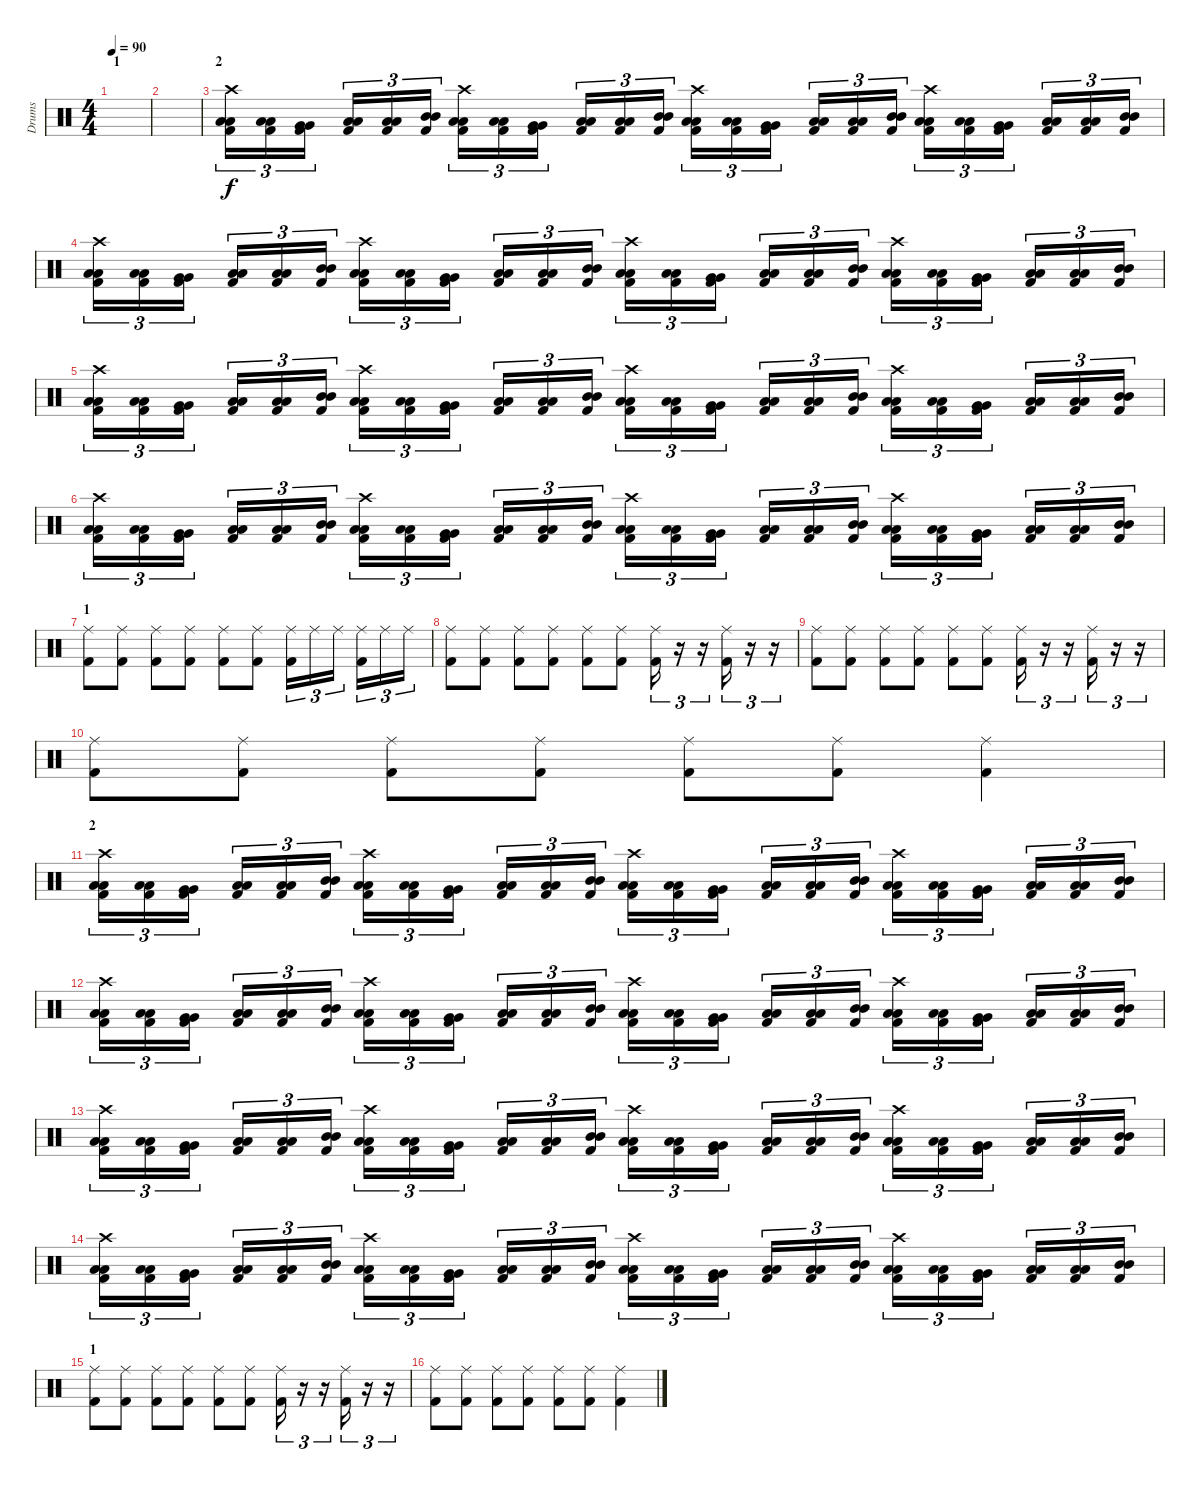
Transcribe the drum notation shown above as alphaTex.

\track ("Drums" "Drums") {instrument percussion}
\staff {score}
\articulation defaults
\ts (4 4)
\section ("" "1")
\tempo 90
\clef neutral
\ks c
|
|
\section ("" "2")
("Crash high (hit)" "Low Floor Tom (hit)" "Low Floor Tom (hit)" "Kick (hit) 2").16{tu (3 2)} ("Low Floor Tom (hit)" "Low Floor Tom (hit)" "Kick (hit) 2").16{tu (3 2)} ("Very Low Tom (hit)" "Very Low Tom (hit)" "Kick (hit) 2").16{tu (3 2)} ("Low Tom (hit)" "Low Tom (hit)" "Kick (hit) 2").16{tu (3 2)} ("Low Tom (hit)" "Low Tom (hit)" "Kick (hit) 2").16{tu (3 2)} ("Mid Tom (hit)" "Mid Tom (hit)" "Kick (hit) 2").16{tu (3 2)} ("Crash high (hit)" "Low Floor Tom (hit)" "Low Floor Tom (hit)" "Kick (hit) 2").16{tu (3 2)} ("Low Floor Tom (hit)" "Low Floor Tom (hit)" "Kick (hit) 2").16{tu (3 2)} ("Very Low Tom (hit)" "Very Low Tom (hit)" "Kick (hit) 2").16{tu (3 2)} ("Low Tom (hit)" "Low Tom (hit)" "Kick (hit) 2").16{tu (3 2)} ("Low Tom (hit)" "Low Tom (hit)" "Kick (hit) 2").16{tu (3 2)} ("Mid Tom (hit)" "Mid Tom (hit)" "Kick (hit) 2").16{tu (3 2)} ("Crash high (hit)" "Low Floor Tom (hit)" "Low Floor Tom (hit)" "Kick (hit) 2").16{tu (3 2)} ("Low Floor Tom (hit)" "Low Floor Tom (hit)" "Kick (hit) 2").16{tu (3 2)} ("Very Low Tom (hit)" "Very Low Tom (hit)" "Kick (hit) 2").16{tu (3 2)} ("Low Tom (hit)" "Low Tom (hit)" "Kick (hit) 2").16{tu (3 2)} ("Low Tom (hit)" "Low Tom (hit)" "Kick (hit) 2").16{tu (3 2)} ("Mid Tom (hit)" "Mid Tom (hit)" "Kick (hit) 2").16{tu (3 2)} ("Crash high (hit)" "Low Floor Tom (hit)" "Low Floor Tom (hit)" "Kick (hit) 2").16{tu (3 2)} ("Low Floor Tom (hit)" "Low Floor Tom (hit)" "Kick (hit) 2").16{tu (3 2)} ("Very Low Tom (hit)" "Very Low Tom (hit)" "Kick (hit) 2").16{tu (3 2)} ("Low Tom (hit)" "Low Tom (hit)" "Kick (hit) 2").16{tu (3 2)} ("Low Tom (hit)" "Low Tom (hit)" "Kick (hit) 2").16{tu (3 2)} ("Mid Tom (hit)" "Mid Tom (hit)" "Kick (hit) 2").16{tu (3 2)} |
("Crash high (hit)" "Low Floor Tom (hit)" "Low Floor Tom (hit)" "Kick (hit) 2").16{tu (3 2)} ("Low Floor Tom (hit)" "Low Floor Tom (hit)" "Kick (hit) 2").16{tu (3 2)} ("Very Low Tom (hit)" "Very Low Tom (hit)" "Kick (hit) 2").16{tu (3 2)} ("Low Tom (hit)" "Low Tom (hit)" "Kick (hit) 2").16{tu (3 2)} ("Low Tom (hit)" "Low Tom (hit)" "Kick (hit) 2").16{tu (3 2)} ("Mid Tom (hit)" "Mid Tom (hit)" "Kick (hit) 2").16{tu (3 2)} ("Crash high (hit)" "Low Floor Tom (hit)" "Low Floor Tom (hit)" "Kick (hit) 2").16{tu (3 2)} ("Low Floor Tom (hit)" "Low Floor Tom (hit)" "Kick (hit) 2").16{tu (3 2)} ("Very Low Tom (hit)" "Very Low Tom (hit)" "Kick (hit) 2").16{tu (3 2)} ("Low Tom (hit)" "Low Tom (hit)" "Kick (hit) 2").16{tu (3 2)} ("Low Tom (hit)" "Low Tom (hit)" "Kick (hit) 2").16{tu (3 2)} ("Mid Tom (hit)" "Mid Tom (hit)" "Kick (hit) 2").16{tu (3 2)} ("Crash high (hit)" "Low Floor Tom (hit)" "Low Floor Tom (hit)" "Kick (hit) 2").16{tu (3 2)} ("Low Floor Tom (hit)" "Low Floor Tom (hit)" "Kick (hit) 2").16{tu (3 2)} ("Very Low Tom (hit)" "Very Low Tom (hit)" "Kick (hit) 2").16{tu (3 2)} ("Low Tom (hit)" "Low Tom (hit)" "Kick (hit) 2").16{tu (3 2)} ("Low Tom (hit)" "Low Tom (hit)" "Kick (hit) 2").16{tu (3 2)} ("Mid Tom (hit)" "Mid Tom (hit)" "Kick (hit) 2").16{tu (3 2)} ("Crash high (hit)" "Low Floor Tom (hit)" "Low Floor Tom (hit)" "Kick (hit) 2").16{tu (3 2)} ("Low Floor Tom (hit)" "Low Floor Tom (hit)" "Kick (hit) 2").16{tu (3 2)} ("Very Low Tom (hit)" "Very Low Tom (hit)" "Kick (hit) 2").16{tu (3 2)} ("Low Tom (hit)" "Low Tom (hit)" "Kick (hit) 2").16{tu (3 2)} ("Low Tom (hit)" "Low Tom (hit)" "Kick (hit) 2").16{tu (3 2)} ("Mid Tom (hit)" "Mid Tom (hit)" "Kick (hit) 2").16{tu (3 2)} |
("Crash high (hit)" "Low Floor Tom (hit)" "Low Floor Tom (hit)" "Kick (hit) 2").16{tu (3 2)} ("Low Floor Tom (hit)" "Low Floor Tom (hit)" "Kick (hit) 2").16{tu (3 2)} ("Very Low Tom (hit)" "Very Low Tom (hit)" "Kick (hit) 2").16{tu (3 2)} ("Low Tom (hit)" "Low Tom (hit)" "Kick (hit) 2").16{tu (3 2)} ("Low Tom (hit)" "Low Tom (hit)" "Kick (hit) 2").16{tu (3 2)} ("Mid Tom (hit)" "Mid Tom (hit)" "Kick (hit) 2").16{tu (3 2)} ("Crash high (hit)" "Low Floor Tom (hit)" "Low Floor Tom (hit)" "Kick (hit) 2").16{tu (3 2)} ("Low Floor Tom (hit)" "Low Floor Tom (hit)" "Kick (hit) 2").16{tu (3 2)} ("Very Low Tom (hit)" "Very Low Tom (hit)" "Kick (hit) 2").16{tu (3 2)} ("Low Tom (hit)" "Low Tom (hit)" "Kick (hit) 2").16{tu (3 2)} ("Low Tom (hit)" "Low Tom (hit)" "Kick (hit) 2").16{tu (3 2)} ("Mid Tom (hit)" "Mid Tom (hit)" "Kick (hit) 2").16{tu (3 2)} ("Crash high (hit)" "Low Floor Tom (hit)" "Low Floor Tom (hit)" "Kick (hit) 2").16{tu (3 2)} ("Low Floor Tom (hit)" "Low Floor Tom (hit)" "Kick (hit) 2").16{tu (3 2)} ("Very Low Tom (hit)" "Very Low Tom (hit)" "Kick (hit) 2").16{tu (3 2)} ("Low Tom (hit)" "Low Tom (hit)" "Kick (hit) 2").16{tu (3 2)} ("Low Tom (hit)" "Low Tom (hit)" "Kick (hit) 2").16{tu (3 2)} ("Mid Tom (hit)" "Mid Tom (hit)" "Kick (hit) 2").16{tu (3 2)} ("Crash high (hit)" "Low Floor Tom (hit)" "Low Floor Tom (hit)" "Kick (hit) 2").16{tu (3 2)} ("Low Floor Tom (hit)" "Low Floor Tom (hit)" "Kick (hit) 2").16{tu (3 2)} ("Very Low Tom (hit)" "Very Low Tom (hit)" "Kick (hit) 2").16{tu (3 2)} ("Low Tom (hit)" "Low Tom (hit)" "Kick (hit) 2").16{tu (3 2)} ("Low Tom (hit)" "Low Tom (hit)" "Kick (hit) 2").16{tu (3 2)} ("Mid Tom (hit)" "Mid Tom (hit)" "Kick (hit) 2").16{tu (3 2)} |
("Crash high (hit)" "Low Floor Tom (hit)" "Low Floor Tom (hit)" "Kick (hit) 2").16{tu (3 2)} ("Low Floor Tom (hit)" "Low Floor Tom (hit)" "Kick (hit) 2").16{tu (3 2)} ("Very Low Tom (hit)" "Very Low Tom (hit)" "Kick (hit) 2").16{tu (3 2)} ("Low Tom (hit)" "Low Tom (hit)" "Kick (hit) 2").16{tu (3 2)} ("Low Tom (hit)" "Low Tom (hit)" "Kick (hit) 2").16{tu (3 2)} ("Mid Tom (hit)" "Mid Tom (hit)" "Kick (hit) 2").16{tu (3 2)} ("Crash high (hit)" "Low Floor Tom (hit)" "Low Floor Tom (hit)" "Kick (hit) 2").16{tu (3 2)} ("Low Floor Tom (hit)" "Low Floor Tom (hit)" "Kick (hit) 2").16{tu (3 2)} ("Very Low Tom (hit)" "Very Low Tom (hit)" "Kick (hit) 2").16{tu (3 2)} ("Low Tom (hit)" "Low Tom (hit)" "Kick (hit) 2").16{tu (3 2)} ("Low Tom (hit)" "Low Tom (hit)" "Kick (hit) 2").16{tu (3 2)} ("Mid Tom (hit)" "Mid Tom (hit)" "Kick (hit) 2").16{tu (3 2)} ("Crash high (hit)" "Low Floor Tom (hit)" "Low Floor Tom (hit)" "Kick (hit) 2").16{tu (3 2)} ("Low Floor Tom (hit)" "Low Floor Tom (hit)" "Kick (hit) 2").16{tu (3 2)} ("Very Low Tom (hit)" "Very Low Tom (hit)" "Kick (hit) 2").16{tu (3 2)} ("Low Tom (hit)" "Low Tom (hit)" "Kick (hit) 2").16{tu (3 2)} ("Low Tom (hit)" "Low Tom (hit)" "Kick (hit) 2").16{tu (3 2)} ("Mid Tom (hit)" "Mid Tom (hit)" "Kick (hit) 2").16{tu (3 2)} ("Crash high (hit)" "Low Floor Tom (hit)" "Low Floor Tom (hit)" "Kick (hit) 2").16{tu (3 2)} ("Low Floor Tom (hit)" "Low Floor Tom (hit)" "Kick (hit) 2").16{tu (3 2)} ("Very Low Tom (hit)" "Very Low Tom (hit)" "Kick (hit) 2").16{tu (3 2)} ("Low Tom (hit)" "Low Tom (hit)" "Kick (hit) 2").16{tu (3 2)} ("Low Tom (hit)" "Low Tom (hit)" "Kick (hit) 2").16{tu (3 2)} ("Mid Tom (hit)" "Mid Tom (hit)" "Kick (hit) 2").16{tu (3 2)} |
\section ("" "1")
("Ride (middle)" "Kick (hit) 2").8 ("Ride (middle)" "Kick (hit) 2").8 ("Ride (middle)" "Kick (hit) 2").8 ("Ride (middle)" "Kick (hit) 2").8 ("Ride (middle)" "Kick (hit) 2").8 ("Ride (middle)" "Kick (hit) 2").8 ("Ride (middle)" "Kick (hit) 2").16{tu (3 2)} "Ride (middle)".16{tu (3 2)} "Ride (middle)".16{tu (3 2)} ("Ride (middle)" "Kick (hit) 2").16{tu (3 2)} "Ride (middle)".16{tu (3 2)} "Ride (middle)".16{tu (3 2)} |
("Ride (middle)" "Kick (hit) 2").8 ("Ride (middle)" "Kick (hit) 2").8 ("Ride (middle)" "Kick (hit) 2").8 ("Ride (middle)" "Kick (hit) 2").8 ("Ride (middle)" "Kick (hit) 2").8 ("Ride (middle)" "Kick (hit) 2").8 ("Ride (middle)" "Kick (hit) 2").16{tu (3 2)} r.16{tu (3 2)} r.16{tu (3 2)} ("Ride (middle)" "Kick (hit) 2").16{tu (3 2)} r.16{tu (3 2)} r.16{tu (3 2)} |
("Ride (middle)" "Kick (hit) 2").8 ("Ride (middle)" "Kick (hit) 2").8 ("Ride (middle)" "Kick (hit) 2").8 ("Ride (middle)" "Kick (hit) 2").8 ("Ride (middle)" "Kick (hit) 2").8 ("Ride (middle)" "Kick (hit) 2").8 ("Ride (middle)" "Kick (hit) 2").16{tu (3 2)} r.16{tu (3 2)} r.16{tu (3 2)} ("Ride (middle)" "Kick (hit) 2").16{tu (3 2)} r.16{tu (3 2)} r.16{tu (3 2)} |
("Ride (middle)" "Kick (hit) 2").8 ("Ride (middle)" "Kick (hit) 2").8 ("Ride (middle)" "Kick (hit) 2").8 ("Ride (middle)" "Kick (hit) 2").8 ("Ride (middle)" "Kick (hit) 2").8 ("Ride (middle)" "Kick (hit) 2").8 ("Ride (middle)" "Kick (hit) 2").4 |
\section ("" "2")
("Crash high (hit)" "Low Floor Tom (hit)" "Low Floor Tom (hit)" "Kick (hit) 2").16{tu (3 2)} ("Low Floor Tom (hit)" "Low Floor Tom (hit)" "Kick (hit) 2").16{tu (3 2)} ("Very Low Tom (hit)" "Very Low Tom (hit)" "Kick (hit) 2").16{tu (3 2)} ("Low Tom (hit)" "Low Tom (hit)" "Kick (hit) 2").16{tu (3 2)} ("Low Tom (hit)" "Low Tom (hit)" "Kick (hit) 2").16{tu (3 2)} ("Mid Tom (hit)" "Mid Tom (hit)" "Kick (hit) 2").16{tu (3 2)} ("Crash high (hit)" "Low Floor Tom (hit)" "Low Floor Tom (hit)" "Kick (hit) 2").16{tu (3 2)} ("Low Floor Tom (hit)" "Low Floor Tom (hit)" "Kick (hit) 2").16{tu (3 2)} ("Very Low Tom (hit)" "Very Low Tom (hit)" "Kick (hit) 2").16{tu (3 2)} ("Low Tom (hit)" "Low Tom (hit)" "Kick (hit) 2").16{tu (3 2)} ("Low Tom (hit)" "Low Tom (hit)" "Kick (hit) 2").16{tu (3 2)} ("Mid Tom (hit)" "Mid Tom (hit)" "Kick (hit) 2").16{tu (3 2)} ("Crash high (hit)" "Low Floor Tom (hit)" "Low Floor Tom (hit)" "Kick (hit) 2").16{tu (3 2)} ("Low Floor Tom (hit)" "Low Floor Tom (hit)" "Kick (hit) 2").16{tu (3 2)} ("Very Low Tom (hit)" "Very Low Tom (hit)" "Kick (hit) 2").16{tu (3 2)} ("Low Tom (hit)" "Low Tom (hit)" "Kick (hit) 2").16{tu (3 2)} ("Low Tom (hit)" "Low Tom (hit)" "Kick (hit) 2").16{tu (3 2)} ("Mid Tom (hit)" "Mid Tom (hit)" "Kick (hit) 2").16{tu (3 2)} ("Crash high (hit)" "Low Floor Tom (hit)" "Low Floor Tom (hit)" "Kick (hit) 2").16{tu (3 2)} ("Low Floor Tom (hit)" "Low Floor Tom (hit)" "Kick (hit) 2").16{tu (3 2)} ("Very Low Tom (hit)" "Very Low Tom (hit)" "Kick (hit) 2").16{tu (3 2)} ("Low Tom (hit)" "Low Tom (hit)" "Kick (hit) 2").16{tu (3 2)} ("Low Tom (hit)" "Low Tom (hit)" "Kick (hit) 2").16{tu (3 2)} ("Mid Tom (hit)" "Mid Tom (hit)" "Kick (hit) 2").16{tu (3 2)} |
("Crash high (hit)" "Low Floor Tom (hit)" "Low Floor Tom (hit)" "Kick (hit) 2").16{tu (3 2)} ("Low Floor Tom (hit)" "Low Floor Tom (hit)" "Kick (hit) 2").16{tu (3 2)} ("Very Low Tom (hit)" "Very Low Tom (hit)" "Kick (hit) 2").16{tu (3 2)} ("Low Tom (hit)" "Low Tom (hit)" "Kick (hit) 2").16{tu (3 2)} ("Low Tom (hit)" "Low Tom (hit)" "Kick (hit) 2").16{tu (3 2)} ("Mid Tom (hit)" "Mid Tom (hit)" "Kick (hit) 2").16{tu (3 2)} ("Crash high (hit)" "Low Floor Tom (hit)" "Low Floor Tom (hit)" "Kick (hit) 2").16{tu (3 2)} ("Low Floor Tom (hit)" "Low Floor Tom (hit)" "Kick (hit) 2").16{tu (3 2)} ("Very Low Tom (hit)" "Very Low Tom (hit)" "Kick (hit) 2").16{tu (3 2)} ("Low Tom (hit)" "Low Tom (hit)" "Kick (hit) 2").16{tu (3 2)} ("Low Tom (hit)" "Low Tom (hit)" "Kick (hit) 2").16{tu (3 2)} ("Mid Tom (hit)" "Mid Tom (hit)" "Kick (hit) 2").16{tu (3 2)} ("Crash high (hit)" "Low Floor Tom (hit)" "Low Floor Tom (hit)" "Kick (hit) 2").16{tu (3 2)} ("Low Floor Tom (hit)" "Low Floor Tom (hit)" "Kick (hit) 2").16{tu (3 2)} ("Very Low Tom (hit)" "Very Low Tom (hit)" "Kick (hit) 2").16{tu (3 2)} ("Low Tom (hit)" "Low Tom (hit)" "Kick (hit) 2").16{tu (3 2)} ("Low Tom (hit)" "Low Tom (hit)" "Kick (hit) 2").16{tu (3 2)} ("Mid Tom (hit)" "Mid Tom (hit)" "Kick (hit) 2").16{tu (3 2)} ("Crash high (hit)" "Low Floor Tom (hit)" "Low Floor Tom (hit)" "Kick (hit) 2").16{tu (3 2)} ("Low Floor Tom (hit)" "Low Floor Tom (hit)" "Kick (hit) 2").16{tu (3 2)} ("Very Low Tom (hit)" "Very Low Tom (hit)" "Kick (hit) 2").16{tu (3 2)} ("Low Tom (hit)" "Low Tom (hit)" "Kick (hit) 2").16{tu (3 2)} ("Low Tom (hit)" "Low Tom (hit)" "Kick (hit) 2").16{tu (3 2)} ("Mid Tom (hit)" "Mid Tom (hit)" "Kick (hit) 2").16{tu (3 2)} |
("Crash high (hit)" "Low Floor Tom (hit)" "Low Floor Tom (hit)" "Kick (hit) 2").16{tu (3 2)} ("Low Floor Tom (hit)" "Low Floor Tom (hit)" "Kick (hit) 2").16{tu (3 2)} ("Very Low Tom (hit)" "Very Low Tom (hit)" "Kick (hit) 2").16{tu (3 2)} ("Low Tom (hit)" "Low Tom (hit)" "Kick (hit) 2").16{tu (3 2)} ("Low Tom (hit)" "Low Tom (hit)" "Kick (hit) 2").16{tu (3 2)} ("Mid Tom (hit)" "Mid Tom (hit)" "Kick (hit) 2").16{tu (3 2)} ("Crash high (hit)" "Low Floor Tom (hit)" "Low Floor Tom (hit)" "Kick (hit) 2").16{tu (3 2)} ("Low Floor Tom (hit)" "Low Floor Tom (hit)" "Kick (hit) 2").16{tu (3 2)} ("Very Low Tom (hit)" "Very Low Tom (hit)" "Kick (hit) 2").16{tu (3 2)} ("Low Tom (hit)" "Low Tom (hit)" "Kick (hit) 2").16{tu (3 2)} ("Low Tom (hit)" "Low Tom (hit)" "Kick (hit) 2").16{tu (3 2)} ("Mid Tom (hit)" "Mid Tom (hit)" "Kick (hit) 2").16{tu (3 2)} ("Crash high (hit)" "Low Floor Tom (hit)" "Low Floor Tom (hit)" "Kick (hit) 2").16{tu (3 2)} ("Low Floor Tom (hit)" "Low Floor Tom (hit)" "Kick (hit) 2").16{tu (3 2)} ("Very Low Tom (hit)" "Very Low Tom (hit)" "Kick (hit) 2").16{tu (3 2)} ("Low Tom (hit)" "Low Tom (hit)" "Kick (hit) 2").16{tu (3 2)} ("Low Tom (hit)" "Low Tom (hit)" "Kick (hit) 2").16{tu (3 2)} ("Mid Tom (hit)" "Mid Tom (hit)" "Kick (hit) 2").16{tu (3 2)} ("Crash high (hit)" "Low Floor Tom (hit)" "Low Floor Tom (hit)" "Kick (hit) 2").16{tu (3 2)} ("Low Floor Tom (hit)" "Low Floor Tom (hit)" "Kick (hit) 2").16{tu (3 2)} ("Very Low Tom (hit)" "Very Low Tom (hit)" "Kick (hit) 2").16{tu (3 2)} ("Low Tom (hit)" "Low Tom (hit)" "Kick (hit) 2").16{tu (3 2)} ("Low Tom (hit)" "Low Tom (hit)" "Kick (hit) 2").16{tu (3 2)} ("Mid Tom (hit)" "Mid Tom (hit)" "Kick (hit) 2").16{tu (3 2)} |
("Crash high (hit)" "Low Floor Tom (hit)" "Low Floor Tom (hit)" "Kick (hit) 2").16{tu (3 2)} ("Low Floor Tom (hit)" "Low Floor Tom (hit)" "Kick (hit) 2").16{tu (3 2)} ("Very Low Tom (hit)" "Very Low Tom (hit)" "Kick (hit) 2").16{tu (3 2)} ("Low Tom (hit)" "Low Tom (hit)" "Kick (hit) 2").16{tu (3 2)} ("Low Tom (hit)" "Low Tom (hit)" "Kick (hit) 2").16{tu (3 2)} ("Mid Tom (hit)" "Mid Tom (hit)" "Kick (hit) 2").16{tu (3 2)} ("Crash high (hit)" "Low Floor Tom (hit)" "Low Floor Tom (hit)" "Kick (hit) 2").16{tu (3 2)} ("Low Floor Tom (hit)" "Low Floor Tom (hit)" "Kick (hit) 2").16{tu (3 2)} ("Very Low Tom (hit)" "Very Low Tom (hit)" "Kick (hit) 2").16{tu (3 2)} ("Low Tom (hit)" "Low Tom (hit)" "Kick (hit) 2").16{tu (3 2)} ("Low Tom (hit)" "Low Tom (hit)" "Kick (hit) 2").16{tu (3 2)} ("Mid Tom (hit)" "Mid Tom (hit)" "Kick (hit) 2").16{tu (3 2)} ("Crash high (hit)" "Low Floor Tom (hit)" "Low Floor Tom (hit)" "Kick (hit) 2").16{tu (3 2)} ("Low Floor Tom (hit)" "Low Floor Tom (hit)" "Kick (hit) 2").16{tu (3 2)} ("Very Low Tom (hit)" "Very Low Tom (hit)" "Kick (hit) 2").16{tu (3 2)} ("Low Tom (hit)" "Low Tom (hit)" "Kick (hit) 2").16{tu (3 2)} ("Low Tom (hit)" "Low Tom (hit)" "Kick (hit) 2").16{tu (3 2)} ("Mid Tom (hit)" "Mid Tom (hit)" "Kick (hit) 2").16{tu (3 2)} ("Crash high (hit)" "Low Floor Tom (hit)" "Low Floor Tom (hit)" "Kick (hit) 2").16{tu (3 2)} ("Low Floor Tom (hit)" "Low Floor Tom (hit)" "Kick (hit) 2").16{tu (3 2)} ("Very Low Tom (hit)" "Very Low Tom (hit)" "Kick (hit) 2").16{tu (3 2)} ("Low Tom (hit)" "Low Tom (hit)" "Kick (hit) 2").16{tu (3 2)} ("Low Tom (hit)" "Low Tom (hit)" "Kick (hit) 2").16{tu (3 2)} ("Mid Tom (hit)" "Mid Tom (hit)" "Kick (hit) 2").16{tu (3 2)} |
\section ("" "1")
("Ride (middle)" "Kick (hit) 2").8 ("Ride (middle)" "Kick (hit) 2").8 ("Ride (middle)" "Kick (hit) 2").8 ("Ride (middle)" "Kick (hit) 2").8 ("Ride (middle)" "Kick (hit) 2").8 ("Ride (middle)" "Kick (hit) 2").8 ("Ride (middle)" "Kick (hit) 2").16{tu (3 2)} r.16{tu (3 2)} r.16{tu (3 2)} ("Ride (middle)" "Kick (hit) 2").16{tu (3 2)} r.16{tu (3 2)} r.16{tu (3 2)} |
("Ride (middle)" "Kick (hit) 2").8 ("Ride (middle)" "Kick (hit) 2").8 ("Ride (middle)" "Kick (hit) 2").8 ("Ride (middle)" "Kick (hit) 2").8 ("Ride (middle)" "Kick (hit) 2").8 ("Ride (middle)" "Kick (hit) 2").8 ("Ride (middle)" "Kick (hit) 2").4
